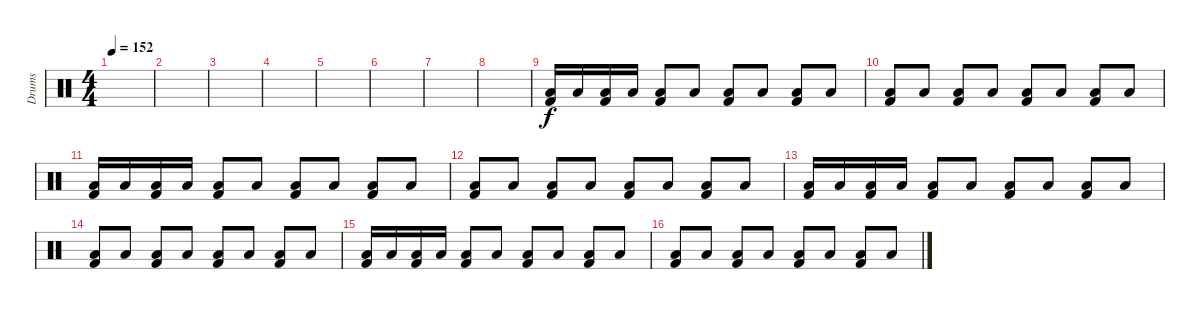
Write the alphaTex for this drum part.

\track ("Drums" "Drums") {instrument percussion}
\staff {score}
\articulation defaults
\ts (4 4)
\tempo 152
\clef neutral
\ks c
|
|
|
|
|
|
|
|
("Kick (hit) 2" "Low Tom (hit)").16 "Low Tom (hit)".16 ("Kick (hit) 2" "Low Tom (hit)").16 "Low Tom (hit)".16 ("Kick (hit) 2" "Low Tom (hit)").8 "Low Tom (hit)".8 ("Kick (hit) 2" "Low Tom (hit)").8 "Low Tom (hit)".8 ("Kick (hit) 2" "Low Tom (hit)").8 "Low Tom (hit)".8 |
("Kick (hit) 2" "Low Tom (hit)").8 "Low Tom (hit)".8 ("Kick (hit) 2" "Low Tom (hit)").8 "Low Tom (hit)".8 ("Kick (hit) 2" "Low Tom (hit)").8 "Low Tom (hit)".8 ("Kick (hit) 2" "Low Tom (hit)").8 "Low Tom (hit)".8 |
("Kick (hit) 2" "Low Tom (hit)").16 "Low Tom (hit)".16 ("Kick (hit) 2" "Low Tom (hit)").16 "Low Tom (hit)".16 ("Kick (hit) 2" "Low Tom (hit)").8 "Low Tom (hit)".8 ("Kick (hit) 2" "Low Tom (hit)").8 "Low Tom (hit)".8 ("Kick (hit) 2" "Low Tom (hit)").8 "Low Tom (hit)".8 |
("Kick (hit) 2" "Low Tom (hit)").8 "Low Tom (hit)".8 ("Kick (hit) 2" "Low Tom (hit)").8 "Low Tom (hit)".8 ("Kick (hit) 2" "Low Tom (hit)").8 "Low Tom (hit)".8 ("Kick (hit) 2" "Low Tom (hit)").8 "Low Tom (hit)".8 |
("Kick (hit) 2" "Low Tom (hit)").16 "Low Tom (hit)".16 ("Kick (hit) 2" "Low Tom (hit)").16 "Low Tom (hit)".16 ("Kick (hit) 2" "Low Tom (hit)").8 "Low Tom (hit)".8 ("Kick (hit) 2" "Low Tom (hit)").8 "Low Tom (hit)".8 ("Kick (hit) 2" "Low Tom (hit)").8 "Low Tom (hit)".8 |
("Kick (hit) 2" "Low Tom (hit)").8 "Low Tom (hit)".8 ("Kick (hit) 2" "Low Tom (hit)").8 "Low Tom (hit)".8 ("Kick (hit) 2" "Low Tom (hit)").8 "Low Tom (hit)".8 ("Kick (hit) 2" "Low Tom (hit)").8 "Low Tom (hit)".8 |
("Kick (hit) 2" "Low Tom (hit)").16 "Low Tom (hit)".16 ("Kick (hit) 2" "Low Tom (hit)").16 "Low Tom (hit)".16 ("Kick (hit) 2" "Low Tom (hit)").8 "Low Tom (hit)".8 ("Kick (hit) 2" "Low Tom (hit)").8 "Low Tom (hit)".8 ("Kick (hit) 2" "Low Tom (hit)").8 "Low Tom (hit)".8 |
("Kick (hit) 2" "Low Tom (hit)").8 "Low Tom (hit)".8 ("Kick (hit) 2" "Low Tom (hit)").8 "Low Tom (hit)".8 ("Kick (hit) 2" "Low Tom (hit)").8 "Low Tom (hit)".8 ("Kick (hit) 2" "Low Tom (hit)").8 "Low Tom (hit)".8
